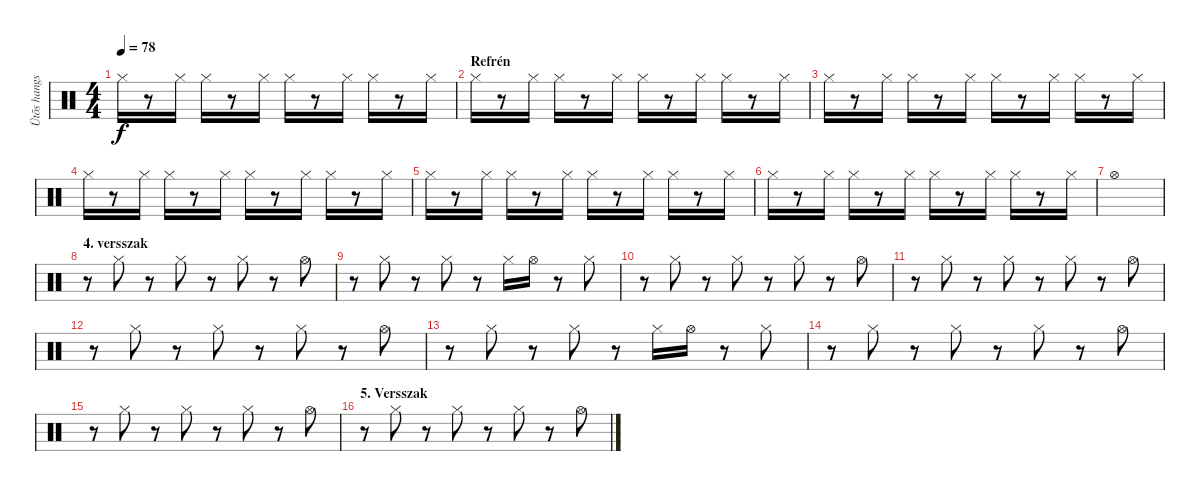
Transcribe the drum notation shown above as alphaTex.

\track ("Ütõs hangszer" "Ütõs hangs") {instrument percussion}
\staff {score}
\articulation defaults
\ts (4 4)
\tempo 78
\clef neutral
\ks c "Hi-Hat (closed)".16{dy f}
r.8 "Hi-Hat (closed)".16 "Hi-Hat (closed)".16 r.8 "Hi-Hat (closed)".16 "Hi-Hat (closed)".16 r.8 "Hi-Hat (closed)".16 "Hi-Hat (closed)".16 r.8 "Hi-Hat (closed)".16 |
\section ("" "Refrén")
"Hi-Hat (closed)".16 r.8 "Hi-Hat (closed)".16 "Hi-Hat (closed)".16 r.8 "Hi-Hat (closed)".16 "Hi-Hat (closed)".16 r.8 "Hi-Hat (closed)".16 "Hi-Hat (closed)".16 r.8 "Hi-Hat (closed)".16 |
"Hi-Hat (closed)".16 r.8 "Hi-Hat (closed)".16 "Hi-Hat (closed)".16 r.8 "Hi-Hat (closed)".16 "Hi-Hat (closed)".16 r.8 "Hi-Hat (closed)".16 "Hi-Hat (closed)".16 r.8 "Hi-Hat (closed)".16 |
"Hi-Hat (closed)".16 r.8 "Hi-Hat (closed)".16 "Hi-Hat (closed)".16 r.8 "Hi-Hat (closed)".16 "Hi-Hat (closed)".16 r.8 "Hi-Hat (closed)".16 "Hi-Hat (closed)".16 r.8 "Hi-Hat (closed)".16 |
"Hi-Hat (closed)".16 r.8 "Hi-Hat (closed)".16 "Hi-Hat (closed)".16 r.8 "Hi-Hat (closed)".16 "Hi-Hat (closed)".16 r.8 "Hi-Hat (closed)".16 "Hi-Hat (closed)".16 r.8 "Hi-Hat (closed)".16 |
"Hi-Hat (closed)".16 r.8 "Hi-Hat (closed)".16 "Hi-Hat (closed)".16 r.8 "Hi-Hat (closed)".16 "Hi-Hat (closed)".16 r.8 "Hi-Hat (closed)".16 "Hi-Hat (closed)".16 r.8 "Hi-Hat (closed)".16 |
"Hi-Hat (open)".1 |
\section ("" "4. versszak")
r.8 "Hi-Hat (closed)".8 r.8 "Hi-Hat (closed)".8 r.8 "Hi-Hat (closed)".8 r.8 "Hi-Hat (open)".8 |
r.8 "Hi-Hat (closed)".8 r.8 "Hi-Hat (closed)".8 r.8 "Hi-Hat (closed)".16 "Hi-Hat (open)".16 r.8 "Hi-Hat (closed)".8 |
r.8 "Hi-Hat (closed)".8 r.8 "Hi-Hat (closed)".8 r.8 "Hi-Hat (closed)".8 r.8 "Hi-Hat (open)".8 |
r.8 "Hi-Hat (closed)".8 r.8 "Hi-Hat (closed)".8 r.8 "Hi-Hat (closed)".8 r.8 "Hi-Hat (open)".8 |
r.8 "Hi-Hat (closed)".8 r.8 "Hi-Hat (closed)".8 r.8 "Hi-Hat (closed)".8 r.8 "Hi-Hat (open)".8 |
r.8 "Hi-Hat (closed)".8 r.8 "Hi-Hat (closed)".8 r.8 "Hi-Hat (closed)".16 "Hi-Hat (open)".16 r.8 "Hi-Hat (closed)".8 |
r.8 "Hi-Hat (closed)".8 r.8 "Hi-Hat (closed)".8 r.8 "Hi-Hat (closed)".8 r.8 "Hi-Hat (open)".8 |
r.8 "Hi-Hat (closed)".8 r.8 "Hi-Hat (closed)".8 r.8 "Hi-Hat (closed)".8 r.8 "Hi-Hat (open)".8 |
\section ("" "5. Versszak")
r.8 "Hi-Hat (closed)".8 r.8 "Hi-Hat (closed)".8 r.8 "Hi-Hat (closed)".8 r.8 "Hi-Hat (open)".8
